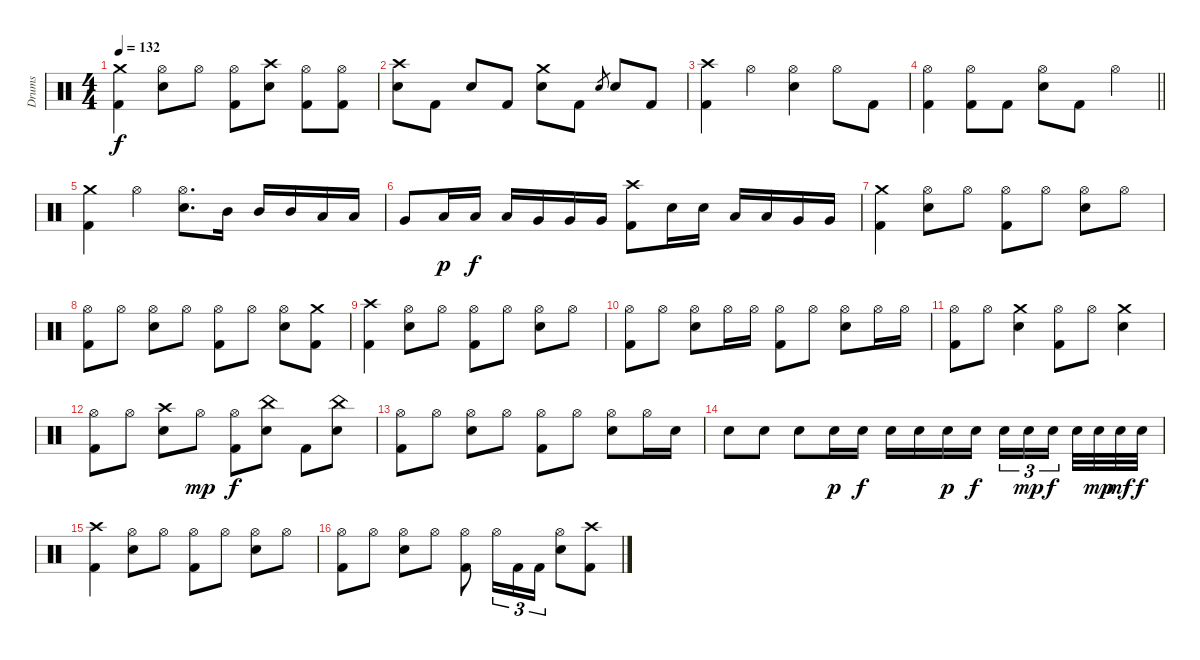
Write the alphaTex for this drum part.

\track ("Drums" "Drums") {instrument percussion}
\staff {score}
\articulation defaults
\ts (4 4)
\tempo 132
\clef neutral
\ks c
("Crash medium (hit)" "Kick (hit) 2").4{dy f} ("Hi-Hat (open)" "Snare (hit) 2").8 "Hi-Hat (open)".8 ("Hi-Hat (open)" "Kick (hit) 2").8 ("Crash high (hit)" "Snare (hit) 2").8 ("Hi-Hat (open)" "Kick (hit) 2").8 ("Hi-Hat (open)" "Kick (hit) 2").8 |
("Crash high (hit)" "Snare (hit) 2").8 "Kick (hit) 2".8 "Snare (hit) 2".8 "Kick (hit) 2".8 ("Crash medium (hit)" "Snare (hit) 2").8 "Kick (hit) 2".8 "Snare (hit) 2".8{gr} "Snare (hit) 2".8 "Kick (hit) 2".8 |
("Crash high (hit)" "Kick (hit) 2").4 "Hi-Hat (open)".4 ("Hi-Hat (open)" "Snare (hit) 2").4 "Hi-Hat (open)".8 "Kick (hit) 2".8 |
\barLineRight lightlight
("Hi-Hat (open)" "Kick (hit) 2").4 ("Hi-Hat (open)" "Kick (hit) 2").8 "Kick (hit) 2".8 ("Hi-Hat (open)" "Snare (hit) 2").8 "Kick (hit) 2".8 "Hi-Hat (open)".4 |
\section ("" "")
("Crash medium (hit)" "Kick (hit) 2").4 "Hi-Hat (open)".4 ("Hi-Hat (open)" "Snare (hit) 2").8{d} "Mid Tom (hit)".16 "Mid Tom (hit)".16 "Mid Tom (hit)".16 "Low Tom (hit)".16 "Low Tom (hit)".16 |
"Very Low Tom (hit)".8 "Low Tom (hit)".16{dy p} "Low Tom (hit)".16{dy f} "Low Tom (hit)".16 "Very Low Tom (hit)".16 "Very Low Tom (hit)".16 "Very Low Tom (hit)".16 ("Crash high (hit)" "Kick (hit) 2").8 "Snare (hit) 2".16 "Snare (hit) 2".16 "Low Tom (hit)".16 "Low Tom (hit)".16 "Very Low Tom (hit)".16 "Very Low Tom (hit)".16 |
("Crash medium (hit)" "Kick (hit) 2").4 ("Hi-Hat (open)" "Snare (hit) 2").8 "Hi-Hat (open)".8 ("Hi-Hat (open)" "Kick (hit) 2").8 "Hi-Hat (open)".8 ("Hi-Hat (open)" "Snare (hit) 2").8 "Hi-Hat (open)".8 |
("Hi-Hat (open)" "Kick (hit) 2").8 "Hi-Hat (open)".8 ("Hi-Hat (open)" "Snare (hit) 2").8 "Hi-Hat (open)".8 ("Hi-Hat (open)" "Kick (hit) 2").8 "Hi-Hat (open)".8 ("Hi-Hat (open)" "Snare (hit) 2").8 ("Crash medium (hit)" "Kick (hit) 2").8 |
("Crash high (hit)" "Kick (hit) 2").4 ("Hi-Hat (open)" "Snare (hit) 2").8 "Hi-Hat (open)".8 ("Hi-Hat (open)" "Kick (hit) 2").8 "Hi-Hat (open)".8 ("Hi-Hat (open)" "Snare (hit) 2").8 "Hi-Hat (open)".8 |
("Hi-Hat (open)" "Kick (hit) 2").8 "Hi-Hat (open)".8 ("Hi-Hat (open)" "Snare (hit) 2").8 "Hi-Hat (open)".16 "Hi-Hat (open)".16 ("Hi-Hat (open)" "Kick (hit) 2").8 "Hi-Hat (open)".8 ("Hi-Hat (open)" "Snare (hit) 2").8 "Hi-Hat (open)".16 "Hi-Hat (open)".16 |
("Hi-Hat (open)" "Kick (hit) 2").8 "Hi-Hat (open)".8 ("Crash medium (hit)" "Snare (hit) 2").4 ("Hi-Hat (open)" "Kick (hit) 2").8 "Hi-Hat (open)".8 ("Crash medium (hit)" "Snare (hit) 2").4 |
("Hi-Hat (open)" "Kick (hit) 2").8 "Hi-Hat (open)".8 ("Crash high (hit)" "Snare (hit) 2").8 "Hi-Hat (open)".8{dy mp} ("Hi-Hat (open)" "Kick (hit) 2").8{dy f} ("China (hit)" "Snare (hit) 2").8 "Kick (hit) 2".8 ("China (hit)" "Snare (hit) 2").8 |
("Hi-Hat (open)" "Kick (hit) 2").8 "Hi-Hat (open)".8 ("Hi-Hat (open)" "Snare (hit) 2").8 "Hi-Hat (open)".8 ("Hi-Hat (open)" "Kick (hit) 2").8 "Hi-Hat (open)".8 ("Hi-Hat (open)" "Snare (hit) 2").8 "Hi-Hat (open)".16 "Snare (hit) 2".16 |
"Snare (hit) 2".8 "Snare (hit) 2".8 "Snare (hit) 2".8 "Snare (hit) 2".16{dy p} "Snare (hit) 2".16{dy f} "Snare (hit) 2".16 "Snare (hit) 2".16 "Snare (hit) 2".16{dy p} "Snare (hit) 2".16{dy f} "Snare (hit) 2".16{tu (3 2)} "Snare (hit) 2".16{tu (3 2) dy mp} "Snare (hit) 2".16{tu (3 2) dy f beam splitsecondary} "Snare (hit) 2".32 "Snare (hit) 2".32{dy mp} "Snare (hit) 2".32{dy mf} "Snare (hit) 2".32{dy f} |
("Crash high (hit)" "Kick (hit) 2").4 ("Hi-Hat (open)" "Snare (hit) 2").8 "Hi-Hat (open)".8 ("Hi-Hat (open)" "Kick (hit) 2").8 "Hi-Hat (open)".8 ("Hi-Hat (open)" "Snare (hit) 2").8 "Hi-Hat (open)".8 |
("Hi-Hat (open)" "Kick (hit) 2").8 "Hi-Hat (open)".8 ("Hi-Hat (open)" "Snare (hit) 2").8 "Hi-Hat (open)".8 ("Hi-Hat (open)" "Kick (hit) 2").8 "Hi-Hat (open)".16{tu (3 2)} "Kick (hit) 2".16{tu (3 2)} "Kick (hit) 2".16{tu (3 2)} ("Hi-Hat (open)" "Snare (hit) 2").8 ("Crash high (hit)" "Kick (hit) 2").8
